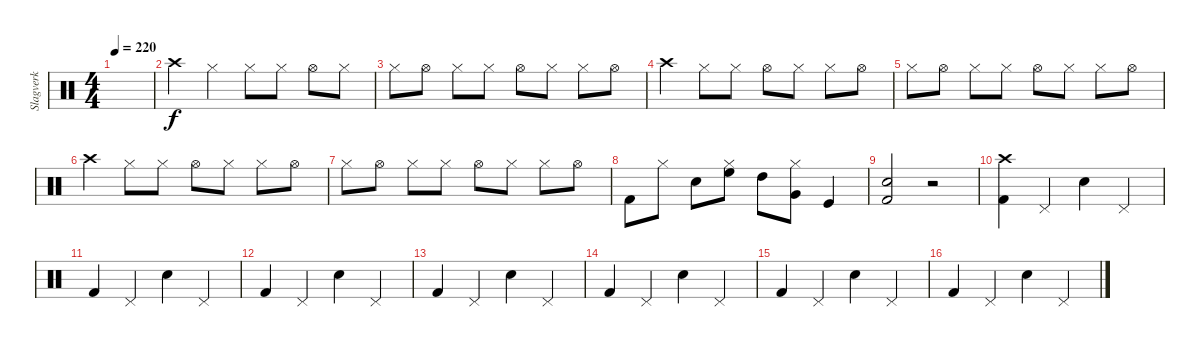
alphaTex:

\track ("Slagverk" "Slagverk") {instrument percussion}
\staff {score}
\articulation defaults
\ts (4 4)
\tempo 220
\clef neutral
\ks c
|
"Crash high (hit)".4 "Hi-Hat (closed)".4 "Hi-Hat (closed)".8 "Hi-Hat (closed)".8 "Hi-Hat (open)".8 "Hi-Hat (closed)".8 |
"Hi-Hat (closed)".8 "Hi-Hat (open)".8 "Hi-Hat (closed)".8 "Hi-Hat (closed)".8 "Hi-Hat (open)".8 "Hi-Hat (closed)".8 "Hi-Hat (closed)".8 "Hi-Hat (open)".8 |
"Crash high (hit)".4 "Hi-Hat (closed)".8 "Hi-Hat (closed)".8 "Hi-Hat (open)".8 "Hi-Hat (closed)".8 "Hi-Hat (closed)".8 "Hi-Hat (open)".8 |
"Hi-Hat (closed)".8 "Hi-Hat (open)".8 "Hi-Hat (closed)".8 "Hi-Hat (closed)".8 "Hi-Hat (open)".8 "Hi-Hat (closed)".8 "Hi-Hat (closed)".8 "Hi-Hat (open)".8 |
"Crash high (hit)".4 "Hi-Hat (closed)".8 "Hi-Hat (closed)".8 "Hi-Hat (open)".8 "Hi-Hat (closed)".8 "Hi-Hat (closed)".8 "Hi-Hat (open)".8 |
"Hi-Hat (closed)".8 "Hi-Hat (open)".8 "Hi-Hat (closed)".8 "Hi-Hat (closed)".8 "Hi-Hat (open)".8 "Hi-Hat (closed)".8 "Hi-Hat (closed)".8 "Hi-Hat (open)".8 |
"Kick (hit) 2".8 "Hi-Hat (closed)".8 "Snare (hit) 2".8 ("Hi-Hat (closed)" "High Floor Tom (hit)").8 "High Tom (hit)".8 ("Hi-Hat (closed)" "Very Low Tom (hit)").8 "Kick (hit)".4 |
("Kick (hit) 2" "Snare (hit) 2").2 r.2 |
("Crash high (hit)" "Kick (hit) 2").4 "Pedal Hi-Hat (hit)".4 "Snare (hit) 2".4 "Pedal Hi-Hat (hit)".4 |
"Kick (hit) 2".4 "Pedal Hi-Hat (hit)".4 "Snare (hit) 2".4 "Pedal Hi-Hat (hit)".4 |
"Kick (hit) 2".4 "Pedal Hi-Hat (hit)".4 "Snare (hit) 2".4 "Pedal Hi-Hat (hit)".4 |
"Kick (hit) 2".4 "Pedal Hi-Hat (hit)".4 "Snare (hit) 2".4 "Pedal Hi-Hat (hit)".4 |
"Kick (hit) 2".4 "Pedal Hi-Hat (hit)".4 "Snare (hit) 2".4 "Pedal Hi-Hat (hit)".4 |
"Kick (hit) 2".4 "Pedal Hi-Hat (hit)".4 "Snare (hit) 2".4 "Pedal Hi-Hat (hit)".4 |
"Kick (hit) 2".4 "Pedal Hi-Hat (hit)".4 "Snare (hit) 2".4 "Pedal Hi-Hat (hit)".4
